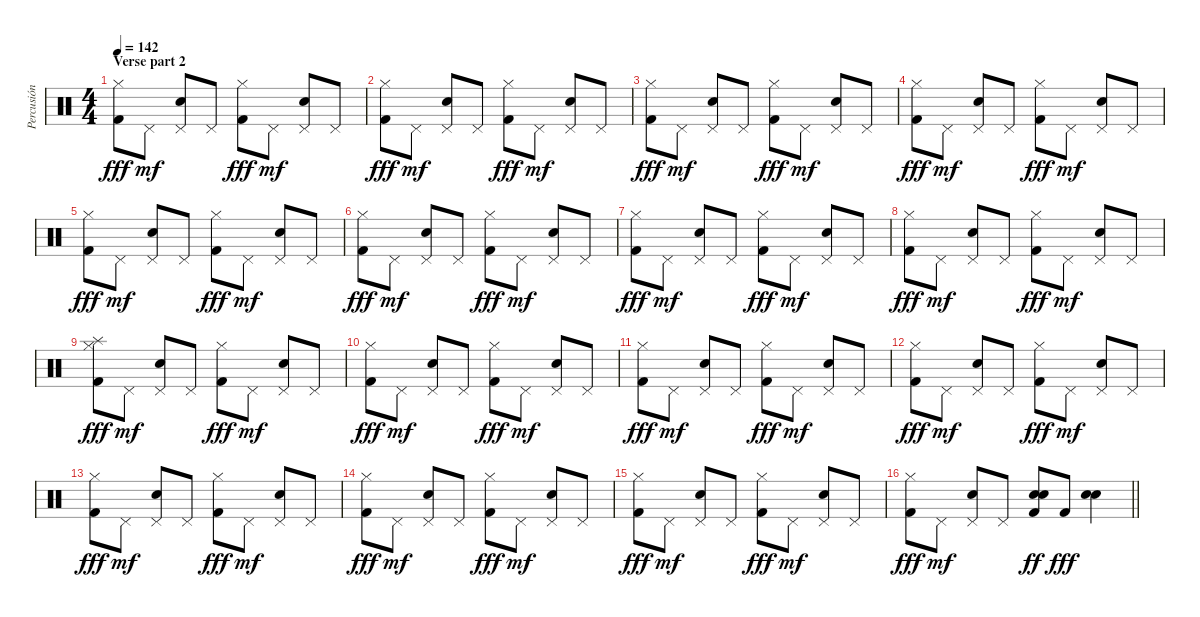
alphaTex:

\track ("Percusión" "Percusión") {instrument percussion}
\staff {score}
\articulation defaults
\ts (4 4)
\section ("" "Verse part 2")
\tempo 142
\clef neutral
\ks c
("Hi-Hat (closed)" "Kick (hit) 2").8{dy fff} "Pedal Hi-Hat (hit)".8{dy mf} ("Pedal Hi-Hat (hit)" "Electric Snare (hit)").8 "Pedal Hi-Hat (hit)".8 ("Hi-Hat (closed)" "Kick (hit) 2").8{dy fff} "Pedal Hi-Hat (hit)".8{dy mf} ("Pedal Hi-Hat (hit)" "Electric Snare (hit)").8 "Pedal Hi-Hat (hit)".8 |
("Hi-Hat (closed)" "Kick (hit) 2").8{dy fff} "Pedal Hi-Hat (hit)".8{dy mf} ("Pedal Hi-Hat (hit)" "Electric Snare (hit)").8 "Pedal Hi-Hat (hit)".8 ("Hi-Hat (closed)" "Kick (hit) 2").8{dy fff} "Pedal Hi-Hat (hit)".8{dy mf} ("Pedal Hi-Hat (hit)" "Electric Snare (hit)").8 "Pedal Hi-Hat (hit)".8 |
("Hi-Hat (closed)" "Kick (hit) 2").8{dy fff} "Pedal Hi-Hat (hit)".8{dy mf} ("Pedal Hi-Hat (hit)" "Electric Snare (hit)").8 "Pedal Hi-Hat (hit)".8 ("Hi-Hat (closed)" "Kick (hit) 2").8{dy fff} "Pedal Hi-Hat (hit)".8{dy mf} ("Pedal Hi-Hat (hit)" "Electric Snare (hit)").8 "Pedal Hi-Hat (hit)".8 |
("Hi-Hat (closed)" "Kick (hit) 2").8{dy fff} "Pedal Hi-Hat (hit)".8{dy mf} ("Pedal Hi-Hat (hit)" "Electric Snare (hit)").8 "Pedal Hi-Hat (hit)".8 ("Hi-Hat (closed)" "Kick (hit) 2").8{dy fff} "Pedal Hi-Hat (hit)".8{dy mf} ("Pedal Hi-Hat (hit)" "Electric Snare (hit)").8 "Pedal Hi-Hat (hit)".8 |
("Hi-Hat (closed)" "Kick (hit) 2").8{dy fff} "Pedal Hi-Hat (hit)".8{dy mf} ("Pedal Hi-Hat (hit)" "Electric Snare (hit)").8 "Pedal Hi-Hat (hit)".8 ("Hi-Hat (closed)" "Kick (hit) 2").8{dy fff} "Pedal Hi-Hat (hit)".8{dy mf} ("Pedal Hi-Hat (hit)" "Electric Snare (hit)").8 "Pedal Hi-Hat (hit)".8 |
("Hi-Hat (closed)" "Kick (hit) 2").8{dy fff} "Pedal Hi-Hat (hit)".8{dy mf} ("Pedal Hi-Hat (hit)" "Electric Snare (hit)").8 "Pedal Hi-Hat (hit)".8 ("Hi-Hat (closed)" "Kick (hit) 2").8{dy fff} "Pedal Hi-Hat (hit)".8{dy mf} ("Pedal Hi-Hat (hit)" "Electric Snare (hit)").8 "Pedal Hi-Hat (hit)".8 |
("Hi-Hat (closed)" "Kick (hit) 2").8{dy fff} "Pedal Hi-Hat (hit)".8{dy mf} ("Pedal Hi-Hat (hit)" "Electric Snare (hit)").8 "Pedal Hi-Hat (hit)".8 ("Hi-Hat (closed)" "Kick (hit) 2").8{dy fff} "Pedal Hi-Hat (hit)".8{dy mf} ("Pedal Hi-Hat (hit)" "Electric Snare (hit)").8 "Pedal Hi-Hat (hit)".8 |
("Hi-Hat (closed)" "Kick (hit) 2").8{dy fff} "Pedal Hi-Hat (hit)".8{dy mf} ("Pedal Hi-Hat (hit)" "Electric Snare (hit)").8 "Pedal Hi-Hat (hit)".8 ("Hi-Hat (closed)" "Kick (hit) 2").8{dy fff} "Pedal Hi-Hat (hit)".8{dy mf} ("Pedal Hi-Hat (hit)" "Electric Snare (hit)").8 "Pedal Hi-Hat (hit)".8 |
("Splash (hit)" "Hi-Hat (closed)" "Kick (hit) 2").8{dy fff} "Pedal Hi-Hat (hit)".8{dy mf} ("Pedal Hi-Hat (hit)" "Electric Snare (hit)").8 "Pedal Hi-Hat (hit)".8 ("Hi-Hat (closed)" "Kick (hit) 2").8{dy fff} "Pedal Hi-Hat (hit)".8{dy mf} ("Pedal Hi-Hat (hit)" "Electric Snare (hit)").8 "Pedal Hi-Hat (hit)".8 |
("Hi-Hat (closed)" "Kick (hit) 2").8{dy fff} "Pedal Hi-Hat (hit)".8{dy mf} ("Pedal Hi-Hat (hit)" "Electric Snare (hit)").8 "Pedal Hi-Hat (hit)".8 ("Hi-Hat (closed)" "Kick (hit) 2").8{dy fff} "Pedal Hi-Hat (hit)".8{dy mf} ("Pedal Hi-Hat (hit)" "Electric Snare (hit)").8 "Pedal Hi-Hat (hit)".8 |
("Hi-Hat (closed)" "Kick (hit) 2").8{dy fff} "Pedal Hi-Hat (hit)".8{dy mf} ("Pedal Hi-Hat (hit)" "Electric Snare (hit)").8 "Pedal Hi-Hat (hit)".8 ("Hi-Hat (closed)" "Kick (hit) 2").8{dy fff} "Pedal Hi-Hat (hit)".8{dy mf} ("Pedal Hi-Hat (hit)" "Electric Snare (hit)").8 "Pedal Hi-Hat (hit)".8 |
("Hi-Hat (closed)" "Kick (hit) 2").8{dy fff} "Pedal Hi-Hat (hit)".8{dy mf} ("Pedal Hi-Hat (hit)" "Electric Snare (hit)").8 "Pedal Hi-Hat (hit)".8 ("Hi-Hat (closed)" "Kick (hit) 2").8{dy fff} "Pedal Hi-Hat (hit)".8{dy mf} ("Pedal Hi-Hat (hit)" "Electric Snare (hit)").8 "Pedal Hi-Hat (hit)".8 |
("Hi-Hat (closed)" "Kick (hit) 2").8{dy fff} "Pedal Hi-Hat (hit)".8{dy mf} ("Pedal Hi-Hat (hit)" "Electric Snare (hit)").8 "Pedal Hi-Hat (hit)".8 ("Hi-Hat (closed)" "Kick (hit) 2").8{dy fff} "Pedal Hi-Hat (hit)".8{dy mf} ("Pedal Hi-Hat (hit)" "Electric Snare (hit)").8 "Pedal Hi-Hat (hit)".8 |
("Hi-Hat (closed)" "Kick (hit) 2").8{dy fff} "Pedal Hi-Hat (hit)".8{dy mf} ("Pedal Hi-Hat (hit)" "Electric Snare (hit)").8 "Pedal Hi-Hat (hit)".8 ("Hi-Hat (closed)" "Kick (hit) 2").8{dy fff} "Pedal Hi-Hat (hit)".8{dy mf} ("Pedal Hi-Hat (hit)" "Electric Snare (hit)").8 "Pedal Hi-Hat (hit)".8 |
("Hi-Hat (closed)" "Kick (hit) 2").8{dy fff} "Pedal Hi-Hat (hit)".8{dy mf} ("Pedal Hi-Hat (hit)" "Electric Snare (hit)").8 "Pedal Hi-Hat (hit)".8 ("Hi-Hat (closed)" "Kick (hit) 2").8{dy fff} "Pedal Hi-Hat (hit)".8{dy mf} ("Pedal Hi-Hat (hit)" "Electric Snare (hit)").8 "Pedal Hi-Hat (hit)".8 |
\barLineRight lightlight
("Hi-Hat (closed)" "Kick (hit) 2").8{dy fff} "Pedal Hi-Hat (hit)".8{dy mf} ("Pedal Hi-Hat (hit)" "Electric Snare (hit)").8 "Pedal Hi-Hat (hit)".8 ("Snare (hit) 2" "Electric Snare (hit)" "Kick (hit) 2").8{dy ff} "Kick (hit) 2".8{dy fff} ("Snare (hit) 2" "Electric Snare (hit)").4
